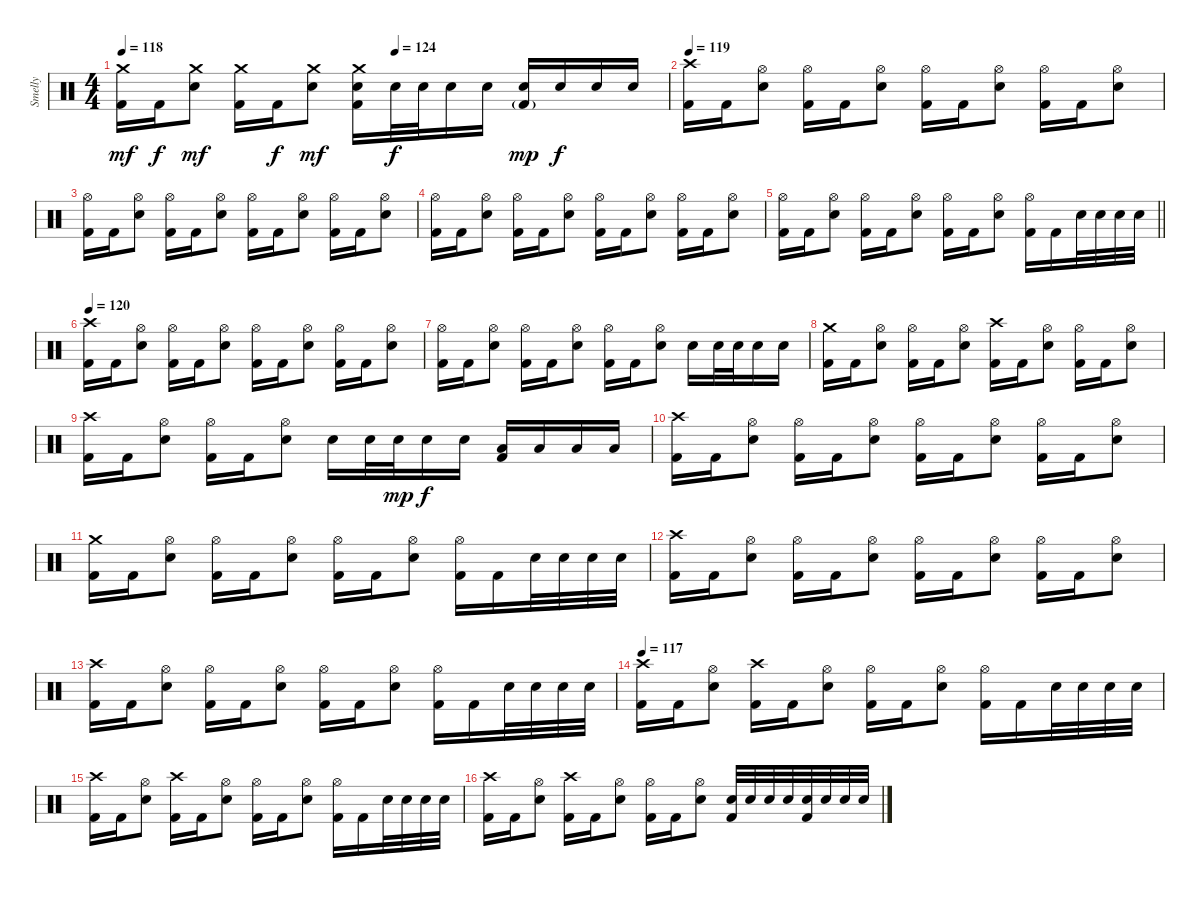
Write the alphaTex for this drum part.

\track ("Smelly" "Smelly") {instrument percussion}
\staff {score}
\articulation defaults
\ts (4 4)
\tempo 118
\tempo (124 0.5)
\clef neutral
\ks c
("Crash medium (hit)" "Kick (hit) 2").16{dy mf} "Kick (hit) 2".16{dy f} ("Crash medium (hit)" "Electric Snare (hit)").8{dy mf} ("Crash medium (hit)" "Kick (hit) 2").16 "Kick (hit) 2".16{dy f} ("Crash medium (hit)" "Electric Snare (hit)").8{dy mf} ("Crash medium (hit)" "Electric Snare (hit)" "Kick (hit) 2").16 "Electric Snare (hit)".32{dy f} "Electric Snare (hit)".32 "Electric Snare (hit)".16 "Electric Snare (hit)".16 ("Electric Snare (hit)" "Kick (hit) 2"{g}).16{dy mp} "Electric Snare (hit)".16{dy f} "Electric Snare (hit)".16 "Electric Snare (hit)".16 |
\tempo 119
("Crash high (hit)" "Kick (hit) 2").16 "Kick (hit) 2".16 ("Hi-Hat (open)" "Electric Snare (hit)").8 ("Hi-Hat (open)" "Kick (hit) 2").16 "Kick (hit) 2".16 ("Hi-Hat (open)" "Electric Snare (hit)").8 ("Hi-Hat (open)" "Kick (hit) 2").16 "Kick (hit) 2".16 ("Hi-Hat (open)" "Electric Snare (hit)").8 ("Hi-Hat (open)" "Kick (hit) 2").16 "Kick (hit) 2".16 ("Hi-Hat (open)" "Electric Snare (hit)").8 |
("Hi-Hat (open)" "Kick (hit) 2").16 "Kick (hit) 2".16 ("Hi-Hat (open)" "Electric Snare (hit)").8 ("Hi-Hat (open)" "Kick (hit) 2").16 "Kick (hit) 2".16 ("Hi-Hat (open)" "Electric Snare (hit)").8 ("Hi-Hat (open)" "Kick (hit) 2").16 "Kick (hit) 2".16 ("Hi-Hat (open)" "Electric Snare (hit)").8 ("Hi-Hat (open)" "Kick (hit) 2").16 "Kick (hit) 2".16 ("Hi-Hat (open)" "Electric Snare (hit)").8 |
("Hi-Hat (open)" "Kick (hit) 2").16 "Kick (hit) 2".16 ("Hi-Hat (open)" "Electric Snare (hit)").8 ("Hi-Hat (open)" "Kick (hit) 2").16 "Kick (hit) 2".16 ("Hi-Hat (open)" "Electric Snare (hit)").8 ("Hi-Hat (open)" "Kick (hit) 2").16 "Kick (hit) 2".16 ("Hi-Hat (open)" "Electric Snare (hit)").8 ("Hi-Hat (open)" "Kick (hit) 2").16 "Kick (hit) 2".16 ("Hi-Hat (open)" "Electric Snare (hit)").8 |
\barLineRight lightlight
("Hi-Hat (open)" "Kick (hit) 2").16 "Kick (hit) 2".16 ("Hi-Hat (open)" "Electric Snare (hit)").8 ("Hi-Hat (open)" "Kick (hit) 2").16 "Kick (hit) 2".16 ("Hi-Hat (open)" "Electric Snare (hit)").8 ("Hi-Hat (open)" "Kick (hit) 2").16 "Kick (hit) 2".16 ("Hi-Hat (open)" "Electric Snare (hit)").8 ("Hi-Hat (open)" "Kick (hit) 2").16 "Kick (hit) 2".16 "Electric Snare (hit)".32 "Electric Snare (hit)".32 "Electric Snare (hit)".32 "Electric Snare (hit)".32 |
\section ("" "")
\tempo 120
("Crash high (hit)" "Kick (hit) 2").16 "Kick (hit) 2".16 ("Hi-Hat (open)" "Electric Snare (hit)").8 ("Hi-Hat (open)" "Kick (hit) 2").16 "Kick (hit) 2".16 ("Hi-Hat (open)" "Electric Snare (hit)").8 ("Hi-Hat (open)" "Kick (hit) 2").16 "Kick (hit) 2".16 ("Hi-Hat (open)" "Electric Snare (hit)").8 ("Hi-Hat (open)" "Kick (hit) 2").16 "Kick (hit) 2".16 ("Hi-Hat (open)" "Electric Snare (hit)").8 |
("Hi-Hat (open)" "Kick (hit) 2").16 "Kick (hit) 2".16 ("Hi-Hat (open)" "Electric Snare (hit)").8 ("Hi-Hat (open)" "Kick (hit) 2").16 "Kick (hit) 2".16 ("Hi-Hat (open)" "Electric Snare (hit)").8 ("Hi-Hat (open)" "Kick (hit) 2").16 "Kick (hit) 2".16 ("Hi-Hat (open)" "Electric Snare (hit)").8 "Electric Snare (hit)".16 "Electric Snare (hit)".32 "Electric Snare (hit)".32 "Electric Snare (hit)".16 "Electric Snare (hit)".16 |
("Crash medium (hit)" "Kick (hit) 2").16 "Kick (hit) 2".16 ("Hi-Hat (open)" "Electric Snare (hit)").8 ("Hi-Hat (open)" "Kick (hit) 2").16 "Kick (hit) 2".16 ("Hi-Hat (open)" "Electric Snare (hit)").8 ("Crash high (hit)" "Kick (hit) 2").16 "Kick (hit) 2".16 ("Hi-Hat (open)" "Electric Snare (hit)").8 ("Hi-Hat (open)" "Kick (hit) 2").16 "Kick (hit) 2".16 ("Hi-Hat (open)" "Electric Snare (hit)").8 |
("Crash high (hit)" "Kick (hit) 2").16 "Kick (hit) 2".16 ("Hi-Hat (open)" "Electric Snare (hit)").8 ("Hi-Hat (open)" "Kick (hit) 2").16 "Kick (hit) 2".16 ("Hi-Hat (open)" "Electric Snare (hit)").8 "Electric Snare (hit)".16 "Electric Snare (hit)".32 "Electric Snare (hit)".32{dy mp} "Electric Snare (hit)".16{dy f} "Electric Snare (hit)".16 ("Low Tom (hit)" "Kick (hit) 2").16 "Low Tom (hit)".16 "Low Floor Tom (hit)".16 "Low Floor Tom (hit)".16 |
("Crash high (hit)" "Kick (hit) 2").16 "Kick (hit) 2".16 ("Hi-Hat (open)" "Electric Snare (hit)").8 ("Hi-Hat (open)" "Kick (hit) 2").16 "Kick (hit) 2".16 ("Hi-Hat (open)" "Electric Snare (hit)").8 ("Hi-Hat (open)" "Kick (hit) 2").16 "Kick (hit) 2".16 ("Hi-Hat (open)" "Electric Snare (hit)").8 ("Hi-Hat (open)" "Kick (hit) 2").16 "Kick (hit) 2".16 ("Hi-Hat (open)" "Electric Snare (hit)").8 |
("Crash medium (hit)" "Kick (hit) 2").16 "Kick (hit) 2".16 ("Hi-Hat (open)" "Electric Snare (hit)").8 ("Hi-Hat (open)" "Kick (hit) 2").16 "Kick (hit) 2".16 ("Hi-Hat (open)" "Electric Snare (hit)").8 ("Hi-Hat (open)" "Kick (hit) 2").16 "Kick (hit) 2".16 ("Hi-Hat (open)" "Electric Snare (hit)").8 ("Hi-Hat (open)" "Kick (hit) 2").16 "Kick (hit) 2".16 "Electric Snare (hit)".32 "Electric Snare (hit)".32 "Electric Snare (hit)".32 "Electric Snare (hit)".32 |
("Crash high (hit)" "Kick (hit) 2").16 "Kick (hit) 2".16 ("Hi-Hat (open)" "Electric Snare (hit)").8 ("Hi-Hat (open)" "Kick (hit) 2").16 "Kick (hit) 2".16 ("Hi-Hat (open)" "Electric Snare (hit)").8 ("Hi-Hat (open)" "Kick (hit) 2").16 "Kick (hit) 2".16 ("Hi-Hat (open)" "Electric Snare (hit)").8 ("Hi-Hat (open)" "Kick (hit) 2").16 "Kick (hit) 2".16 ("Hi-Hat (open)" "Electric Snare (hit)").8 |
("Crash high (hit)" "Kick (hit) 2").16 "Kick (hit) 2".16 ("Hi-Hat (open)" "Electric Snare (hit)").8 ("Hi-Hat (open)" "Kick (hit) 2").16 "Kick (hit) 2".16 ("Hi-Hat (open)" "Electric Snare (hit)").8 ("Hi-Hat (open)" "Kick (hit) 2").16 "Kick (hit) 2".16 ("Hi-Hat (open)" "Electric Snare (hit)").8 ("Hi-Hat (open)" "Kick (hit) 2").16 "Kick (hit) 2".16 "Electric Snare (hit)".32 "Electric Snare (hit)".32 "Electric Snare (hit)".32 "Electric Snare (hit)".32 |
\tempo 117
("Crash high (hit)" "Kick (hit) 2").16 "Kick (hit) 2".16 ("Hi-Hat (open)" "Electric Snare (hit)").8 ("Crash high (hit)" "Kick (hit) 2").16 "Kick (hit) 2".16 ("Hi-Hat (open)" "Electric Snare (hit)").8 ("Hi-Hat (open)" "Kick (hit) 2").16 "Kick (hit) 2".16 ("Hi-Hat (open)" "Electric Snare (hit)").8 ("Hi-Hat (open)" "Kick (hit) 2").16 "Kick (hit) 2".16 "Electric Snare (hit)".32 "Electric Snare (hit)".32 "Electric Snare (hit)".32 "Electric Snare (hit)".32 |
("Crash high (hit)" "Kick (hit) 2").16 "Kick (hit) 2".16 ("Hi-Hat (open)" "Electric Snare (hit)").8 ("Crash high (hit)" "Kick (hit) 2").16 "Kick (hit) 2".16 ("Hi-Hat (open)" "Electric Snare (hit)").8 ("Hi-Hat (open)" "Kick (hit) 2").16 "Kick (hit) 2".16 ("Hi-Hat (open)" "Electric Snare (hit)").8 ("Hi-Hat (open)" "Kick (hit) 2").16 "Kick (hit) 2".16 "Electric Snare (hit)".32 "Electric Snare (hit)".32 "Electric Snare (hit)".32 "Electric Snare (hit)".32 |
("Crash high (hit)" "Kick (hit) 2").16 "Kick (hit) 2".16 ("Hi-Hat (open)" "Electric Snare (hit)").8 ("Crash high (hit)" "Kick (hit) 2").16 "Kick (hit) 2".16 ("Hi-Hat (open)" "Electric Snare (hit)").8 ("Hi-Hat (open)" "Kick (hit) 2").16 "Kick (hit) 2".16 ("Hi-Hat (open)" "Electric Snare (hit)").8 ("Electric Snare (hit)" "Kick (hit) 2").32 "Electric Snare (hit)".32 "Electric Snare (hit)".32 "Electric Snare (hit)".32 ("Electric Snare (hit)" "Kick (hit) 2").32 "Electric Snare (hit)".32 "Electric Snare (hit)".32 "Electric Snare (hit)".32
